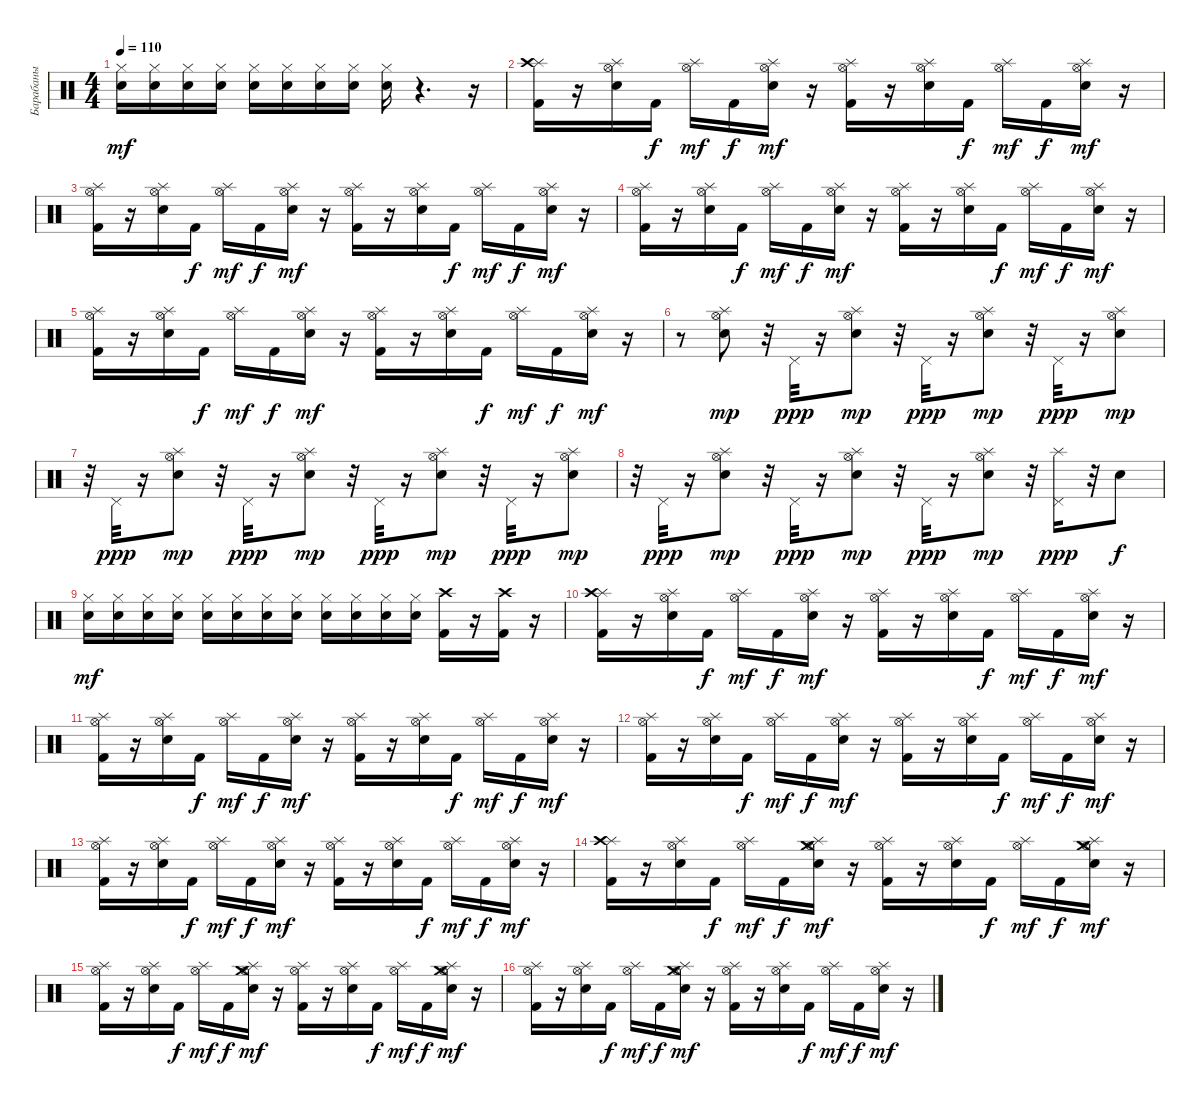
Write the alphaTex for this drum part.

\track ("Барабаны" "Барабаны") {instrument percussion}
\staff {score}
\articulation defaults
\ts (4 4)
\tempo 110
\clef neutral
\ks c
("Hi-Hat (closed)" "Electric Snare (hit)").16{dy mf} ("Hi-Hat (closed)" "Electric Snare (hit)").16 ("Hi-Hat (closed)" "Electric Snare (hit)").16 ("Hi-Hat (closed)" "Electric Snare (hit)").16 ("Hi-Hat (closed)" "Electric Snare (hit)").16 ("Hi-Hat (closed)" "Electric Snare (hit)").16 ("Hi-Hat (closed)" "Electric Snare (hit)").16 ("Hi-Hat (closed)" "Electric Snare (hit)").16 ("Hi-Hat (closed)" "Electric Snare (hit)").16 r.4{d} r.16 |
("Splash (hit)" "Crash high (hit)" "Kick (hit) 2").16 r.16 ("Hi-Hat (open)" "Splash (hit)" "Electric Snare (hit)").16 "Kick (hit) 2".16{dy f} ("Hi-Hat (open)" "Splash (hit)").16{dy mf} "Kick (hit) 2".16{dy f} ("Hi-Hat (open)" "Splash (hit)" "Electric Snare (hit)").16{dy mf} r.16 ("Hi-Hat (open)" "Splash (hit)" "Kick (hit) 2").16 r.16 ("Hi-Hat (open)" "Splash (hit)" "Electric Snare (hit)").16 "Kick (hit) 2".16{dy f} ("Hi-Hat (open)" "Splash (hit)").16{dy mf} "Kick (hit) 2".16{dy f} ("Hi-Hat (open)" "Splash (hit)" "Electric Snare (hit)").16{dy mf} r.16 |
("Hi-Hat (open)" "Splash (hit)" "Kick (hit) 2").16 r.16 ("Hi-Hat (open)" "Splash (hit)" "Electric Snare (hit)").16 "Kick (hit) 2".16{dy f} ("Hi-Hat (open)" "Splash (hit)").16{dy mf} "Kick (hit) 2".16{dy f} ("Hi-Hat (open)" "Splash (hit)" "Electric Snare (hit)").16{dy mf} r.16 ("Hi-Hat (open)" "Splash (hit)" "Kick (hit) 2").16 r.16 ("Hi-Hat (open)" "Splash (hit)" "Electric Snare (hit)").16 "Kick (hit) 2".16{dy f} ("Hi-Hat (open)" "Splash (hit)").16{dy mf} "Kick (hit) 2".16{dy f} ("Hi-Hat (open)" "Splash (hit)" "Electric Snare (hit)").16{dy mf} r.16 |
("Hi-Hat (open)" "Splash (hit)" "Kick (hit) 2").16 r.16 ("Hi-Hat (open)" "Splash (hit)" "Electric Snare (hit)").16 "Kick (hit) 2".16{dy f} ("Hi-Hat (open)" "Splash (hit)").16{dy mf} "Kick (hit) 2".16{dy f} ("Hi-Hat (open)" "Splash (hit)" "Electric Snare (hit)").16{dy mf} r.16 ("Hi-Hat (open)" "Splash (hit)" "Kick (hit) 2").16 r.16 ("Hi-Hat (open)" "Splash (hit)" "Electric Snare (hit)").16 "Kick (hit) 2".16{dy f} ("Hi-Hat (open)" "Splash (hit)").16{dy mf} "Kick (hit) 2".16{dy f} ("Hi-Hat (open)" "Splash (hit)" "Electric Snare (hit)").16{dy mf} r.16 |
("Hi-Hat (open)" "Splash (hit)" "Kick (hit) 2").16 r.16 ("Hi-Hat (open)" "Splash (hit)" "Electric Snare (hit)").16 "Kick (hit) 2".16{dy f} ("Hi-Hat (open)" "Splash (hit)").16{dy mf} "Kick (hit) 2".16{dy f} ("Hi-Hat (open)" "Splash (hit)" "Electric Snare (hit)").16{dy mf} r.16 ("Hi-Hat (open)" "Splash (hit)" "Kick (hit) 2").16 r.16 ("Hi-Hat (open)" "Splash (hit)" "Electric Snare (hit)").16 "Kick (hit) 2".16{dy f} ("Hi-Hat (open)" "Splash (hit)").16{dy mf} "Kick (hit) 2".16{dy f} ("Hi-Hat (open)" "Splash (hit)" "Electric Snare (hit)").16{dy mf} r.16 |
r.8 ("Splash (hit)" "Hi-Hat (open)" "Electric Snare (hit)").8{dy mp} r.32 "Pedal Hi-Hat (hit)".32{dy ppp} r.16 ("Splash (hit)" "Hi-Hat (open)" "Electric Snare (hit)").8{dy mp} r.32 "Pedal Hi-Hat (hit)".32{dy ppp} r.16 ("Splash (hit)" "Hi-Hat (open)" "Electric Snare (hit)").8{dy mp} r.32 "Pedal Hi-Hat (hit)".32{dy ppp} r.16 ("Splash (hit)" "Hi-Hat (open)" "Electric Snare (hit)").8{dy mp} |
r.32 "Pedal Hi-Hat (hit)".32{dy ppp} r.16 ("Splash (hit)" "Hi-Hat (open)" "Electric Snare (hit)").8{dy mp} r.32 "Pedal Hi-Hat (hit)".32{dy ppp} r.16 ("Splash (hit)" "Hi-Hat (open)" "Electric Snare (hit)").8{dy mp} r.32 "Pedal Hi-Hat (hit)".32{dy ppp} r.16 ("Splash (hit)" "Hi-Hat (open)" "Electric Snare (hit)").8{dy mp} r.32 "Pedal Hi-Hat (hit)".32{dy ppp} r.16 ("Splash (hit)" "Hi-Hat (open)" "Electric Snare (hit)").8{dy mp} |
r.32 "Pedal Hi-Hat (hit)".32{dy ppp} r.16 ("Splash (hit)" "Hi-Hat (open)" "Electric Snare (hit)").8{dy mp} r.32 "Pedal Hi-Hat (hit)".32{dy ppp} r.16 ("Splash (hit)" "Hi-Hat (open)" "Electric Snare (hit)").8{dy mp} r.32 "Pedal Hi-Hat (hit)".32{dy ppp} r.16 ("Splash (hit)" "Hi-Hat (open)" "Electric Snare (hit)").8{dy mp} r.32 ("Splash (hit)" "Pedal Hi-Hat (hit)").16{dy ppp} r.32 "Electric Snare (hit)".8{dy f} |
("Hi-Hat (closed)" "Electric Snare (hit)").16{dy mf} ("Hi-Hat (closed)" "Electric Snare (hit)").16 ("Hi-Hat (closed)" "Electric Snare (hit)").16 ("Hi-Hat (closed)" "Electric Snare (hit)").16 ("Hi-Hat (closed)" "Electric Snare (hit)").16 ("Hi-Hat (closed)" "Electric Snare (hit)").16 ("Hi-Hat (closed)" "Electric Snare (hit)").16 ("Hi-Hat (closed)" "Electric Snare (hit)").16 ("Hi-Hat (closed)" "Electric Snare (hit)").16 ("Hi-Hat (closed)" "Electric Snare (hit)").16 ("Hi-Hat (closed)" "Electric Snare (hit)").16 ("Hi-Hat (closed)" "Electric Snare (hit)").16 ("Crash high (hit)" "Kick (hit) 2").16 r.16 ("Crash high (hit)" "Kick (hit) 2").16 r.16 |
("Splash (hit)" "Crash high (hit)" "Kick (hit) 2").16 r.16 ("Hi-Hat (open)" "Splash (hit)" "Electric Snare (hit)").16 "Kick (hit) 2".16{dy f} ("Hi-Hat (open)" "Splash (hit)").16{dy mf} "Kick (hit) 2".16{dy f} ("Hi-Hat (open)" "Splash (hit)" "Electric Snare (hit)").16{dy mf} r.16 ("Hi-Hat (open)" "Splash (hit)" "Kick (hit) 2").16 r.16 ("Hi-Hat (open)" "Splash (hit)" "Electric Snare (hit)").16 "Kick (hit) 2".16{dy f} ("Hi-Hat (open)" "Splash (hit)").16{dy mf} "Kick (hit) 2".16{dy f} ("Hi-Hat (open)" "Splash (hit)" "Electric Snare (hit)").16{dy mf} r.16 |
("Hi-Hat (open)" "Splash (hit)" "Kick (hit) 2").16 r.16 ("Hi-Hat (open)" "Splash (hit)" "Electric Snare (hit)").16 "Kick (hit) 2".16{dy f} ("Hi-Hat (open)" "Splash (hit)").16{dy mf} "Kick (hit) 2".16{dy f} ("Hi-Hat (open)" "Splash (hit)" "Electric Snare (hit)").16{dy mf} r.16 ("Hi-Hat (open)" "Splash (hit)" "Kick (hit) 2").16 r.16 ("Hi-Hat (open)" "Splash (hit)" "Electric Snare (hit)").16 "Kick (hit) 2".16{dy f} ("Hi-Hat (open)" "Splash (hit)").16{dy mf} "Kick (hit) 2".16{dy f} ("Hi-Hat (open)" "Splash (hit)" "Electric Snare (hit)").16{dy mf} r.16 |
("Hi-Hat (open)" "Splash (hit)" "Kick (hit) 2").16 r.16 ("Hi-Hat (open)" "Splash (hit)" "Electric Snare (hit)").16 "Kick (hit) 2".16{dy f} ("Hi-Hat (open)" "Splash (hit)").16{dy mf} "Kick (hit) 2".16{dy f} ("Hi-Hat (open)" "Splash (hit)" "Electric Snare (hit)").16{dy mf} r.16 ("Hi-Hat (open)" "Splash (hit)" "Kick (hit) 2").16 r.16 ("Hi-Hat (open)" "Splash (hit)" "Electric Snare (hit)").16 "Kick (hit) 2".16{dy f} ("Hi-Hat (open)" "Splash (hit)").16{dy mf} "Kick (hit) 2".16{dy f} ("Hi-Hat (open)" "Splash (hit)" "Electric Snare (hit)").16{dy mf} r.16 |
("Hi-Hat (open)" "Splash (hit)" "Kick (hit) 2").16 r.16 ("Hi-Hat (open)" "Splash (hit)" "Electric Snare (hit)").16 "Kick (hit) 2".16{dy f} ("Hi-Hat (open)" "Splash (hit)").16{dy mf} "Kick (hit) 2".16{dy f} ("Hi-Hat (open)" "Splash (hit)" "Electric Snare (hit)").16{dy mf} r.16 ("Hi-Hat (open)" "Splash (hit)" "Kick (hit) 2").16 r.16 ("Hi-Hat (open)" "Splash (hit)" "Electric Snare (hit)").16 "Kick (hit) 2".16{dy f} ("Hi-Hat (open)" "Splash (hit)").16{dy mf} "Kick (hit) 2".16{dy f} ("Hi-Hat (open)" "Splash (hit)" "Electric Snare (hit)").16{dy mf} r.16 |
("Splash (hit)" "Crash high (hit)" "Kick (hit) 2").16 r.16 ("Hi-Hat (open)" "Splash (hit)" "Electric Snare (hit)").16 "Kick (hit) 2".16{dy f} ("Hi-Hat (open)" "Splash (hit)").16{dy mf} "Kick (hit) 2".16{dy f} ("Crash medium (hit)" "Hi-Hat (open)" "Splash (hit)" "Electric Snare (hit)").16{dy mf} r.16 ("Hi-Hat (open)" "Splash (hit)" "Kick (hit) 2").16 r.16 ("Hi-Hat (open)" "Splash (hit)" "Electric Snare (hit)").16 "Kick (hit) 2".16{dy f} ("Hi-Hat (open)" "Splash (hit)").16{dy mf} "Kick (hit) 2".16{dy f} ("Crash medium (hit)" "Hi-Hat (open)" "Splash (hit)" "Electric Snare (hit)").16{dy mf} r.16 |
("Hi-Hat (open)" "Splash (hit)" "Kick (hit) 2").16 r.16 ("Hi-Hat (open)" "Splash (hit)" "Electric Snare (hit)").16 "Kick (hit) 2".16{dy f} ("Hi-Hat (open)" "Splash (hit)").16{dy mf} "Kick (hit) 2".16{dy f} ("Crash medium (hit)" "Hi-Hat (open)" "Splash (hit)" "Electric Snare (hit)").16{dy mf} r.16 ("Hi-Hat (open)" "Splash (hit)" "Kick (hit) 2").16 r.16 ("Hi-Hat (open)" "Splash (hit)" "Electric Snare (hit)").16 "Kick (hit) 2".16{dy f} ("Hi-Hat (open)" "Splash (hit)").16{dy mf} "Kick (hit) 2".16{dy f} ("Crash medium (hit)" "Hi-Hat (open)" "Splash (hit)" "Electric Snare (hit)").16{dy mf} r.16 |
("Hi-Hat (open)" "Splash (hit)" "Kick (hit) 2").16 r.16 ("Hi-Hat (open)" "Splash (hit)" "Electric Snare (hit)").16 "Kick (hit) 2".16{dy f} ("Hi-Hat (open)" "Splash (hit)").16{dy mf} "Kick (hit) 2".16{dy f} ("Crash medium (hit)" "Hi-Hat (open)" "Splash (hit)" "Electric Snare (hit)").16{dy mf} r.16 ("Hi-Hat (open)" "Splash (hit)" "Kick (hit) 2").16 r.16 ("Hi-Hat (open)" "Splash (hit)" "Electric Snare (hit)").16 "Kick (hit) 2".16{dy f} ("Hi-Hat (open)" "Splash (hit)").16{dy mf} "Kick (hit) 2".16{dy f} ("Hi-Hat (open)" "Splash (hit)" "Electric Snare (hit)").16{dy mf} r.16
